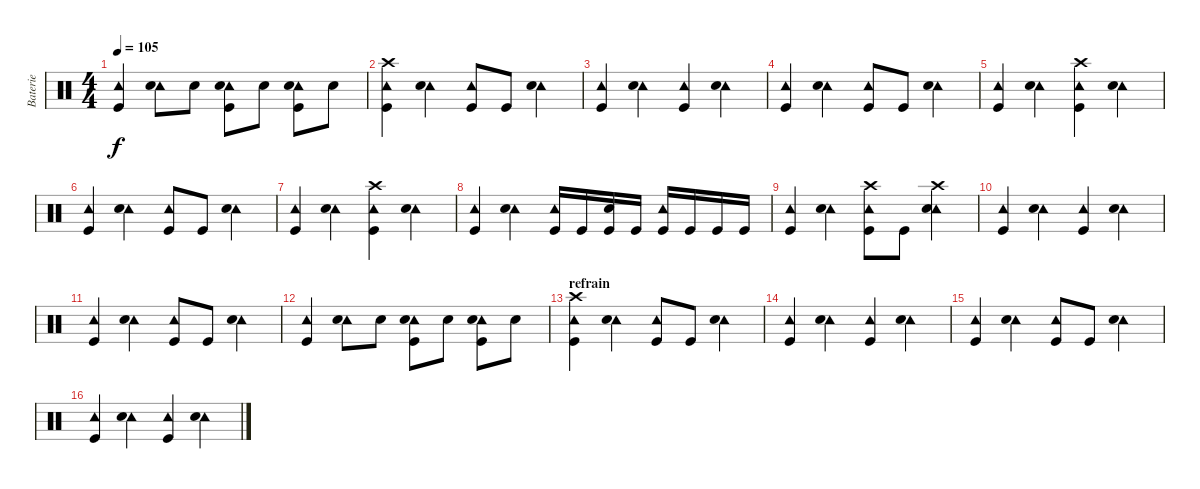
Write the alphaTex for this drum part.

\track ("Baterie" "Baterie") {instrument percussion}
\staff {score}
\articulation defaults
\ts (4 4)
\tempo 105
\clef neutral
\ks c
("Tambourine (hit)" "Kick (hit)").4{dy f} ("Tambourine (hit)" "Snare (hit) 2").8 "Snare (hit) 2".8 ("Tambourine (hit)" "Kick (hit)" "Snare (hit) 2").8 "Snare (hit) 2".8 ("Tambourine (hit)" "Kick (hit)" "Snare (hit) 2").8 "Snare (hit) 2".8 |
("Tambourine (hit)" "Kick (hit)" "Crash high (hit)").4 ("Tambourine (hit)" "Snare (hit) 2").4 ("Tambourine (hit)" "Kick (hit)").8 "Kick (hit)".8 ("Tambourine (hit)" "Snare (hit) 2").4 |
("Tambourine (hit)" "Kick (hit)").4 ("Tambourine (hit)" "Snare (hit) 2").4 ("Tambourine (hit)" "Kick (hit)").4 ("Tambourine (hit)" "Snare (hit) 2").4 |
("Tambourine (hit)" "Kick (hit)").4 ("Tambourine (hit)" "Snare (hit) 2").4 ("Tambourine (hit)" "Kick (hit)").8 "Kick (hit)".8 ("Tambourine (hit)" "Snare (hit) 2").4 |
("Tambourine (hit)" "Kick (hit)").4 ("Tambourine (hit)" "Snare (hit) 2").4 ("Tambourine (hit)" "Crash high (hit)" "Kick (hit)").4 ("Tambourine (hit)" "Snare (hit) 2").4 |
("Tambourine (hit)" "Kick (hit)").4 ("Tambourine (hit)" "Snare (hit) 2").4 ("Tambourine (hit)" "Kick (hit)").8 "Kick (hit)".8 ("Tambourine (hit)" "Snare (hit) 2").4 |
("Tambourine (hit)" "Kick (hit)").4 ("Tambourine (hit)" "Snare (hit) 2").4 ("Tambourine (hit)" "Crash high (hit)" "Kick (hit)").4 ("Tambourine (hit)" "Snare (hit) 2").4 |
("Tambourine (hit)" "Kick (hit)").4 ("Tambourine (hit)" "Snare (hit) 2").4 ("Tambourine (hit)" "Kick (hit)").16 "Kick (hit)".16 ("Kick (hit)" "Snare (hit) 2").16 "Kick (hit)".16 ("Tambourine (hit)" "Kick (hit)").16 "Kick (hit)".16 "Kick (hit)".16 "Kick (hit)".16 |
("Tambourine (hit)" "Kick (hit)").4 ("Tambourine (hit)" "Snare (hit) 2").4 ("Tambourine (hit)" "Crash high (hit)" "Kick (hit)").8 "Kick (hit)".8 ("Tambourine (hit)" "Crash high (hit)" "Snare (hit) 2").4 |
("Tambourine (hit)" "Kick (hit)").4 ("Tambourine (hit)" "Snare (hit) 2").4 ("Tambourine (hit)" "Kick (hit)").4 ("Tambourine (hit)" "Snare (hit) 2").4 |
("Tambourine (hit)" "Kick (hit)").4 ("Tambourine (hit)" "Snare (hit) 2").4 ("Tambourine (hit)" "Kick (hit)").8 "Kick (hit)".8 ("Tambourine (hit)" "Snare (hit) 2").4 |
("Tambourine (hit)" "Kick (hit)").4 ("Tambourine (hit)" "Snare (hit) 2").8 "Snare (hit) 2".8 ("Tambourine (hit)" "Kick (hit)" "Snare (hit) 2").8 "Snare (hit) 2".8 ("Tambourine (hit)" "Kick (hit)" "Snare (hit) 2").8 "Snare (hit) 2".8 |
\section ("" "refrain")
("Tambourine (hit)" "Kick (hit)" "Crash high (hit)").4 ("Tambourine (hit)" "Snare (hit) 2").4 ("Tambourine (hit)" "Kick (hit)").8 "Kick (hit)".8 ("Tambourine (hit)" "Snare (hit) 2").4 |
("Tambourine (hit)" "Kick (hit)").4 ("Tambourine (hit)" "Snare (hit) 2").4 ("Tambourine (hit)" "Kick (hit)").4 ("Tambourine (hit)" "Snare (hit) 2").4 |
("Tambourine (hit)" "Kick (hit)").4 ("Tambourine (hit)" "Snare (hit) 2").4 ("Tambourine (hit)" "Kick (hit)").8 "Kick (hit)".8 ("Tambourine (hit)" "Snare (hit) 2").4 |
("Tambourine (hit)" "Kick (hit)").4 ("Tambourine (hit)" "Snare (hit) 2").4 ("Tambourine (hit)" "Kick (hit)").4 ("Tambourine (hit)" "Snare (hit) 2").4
